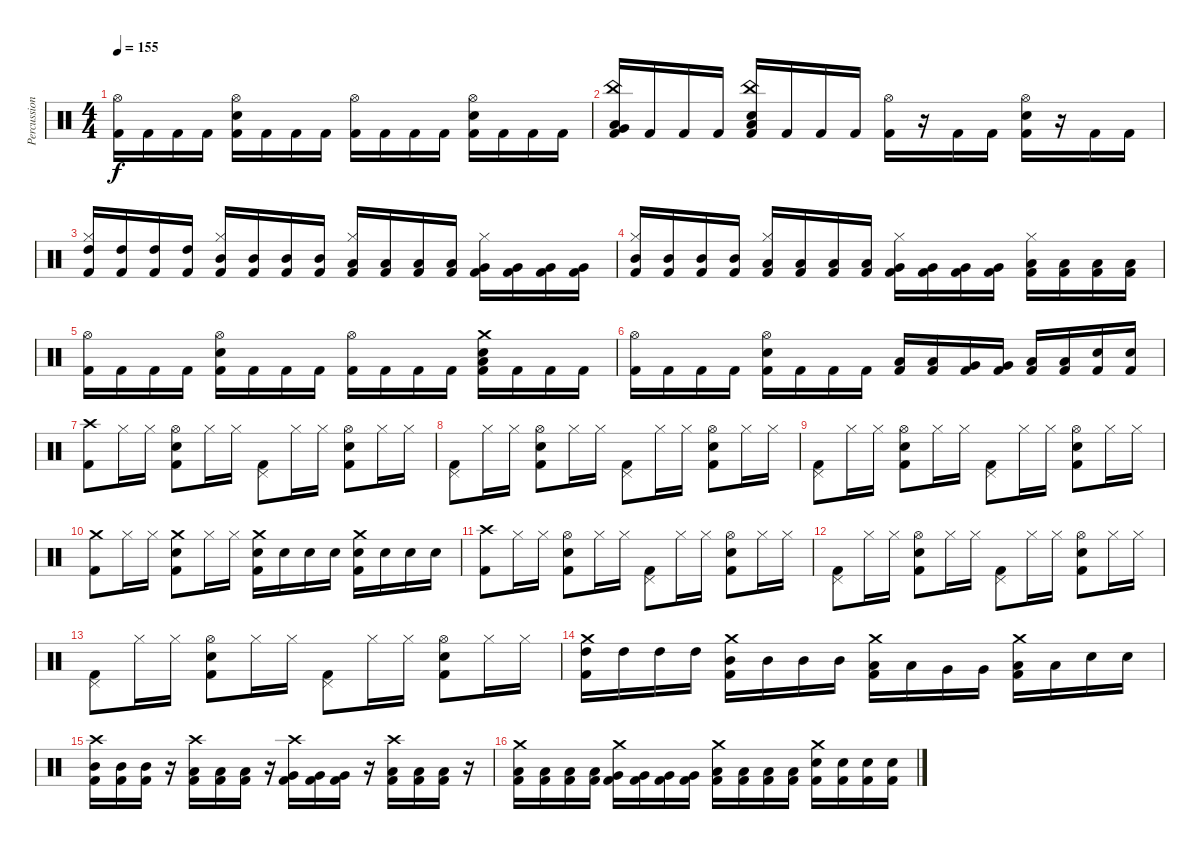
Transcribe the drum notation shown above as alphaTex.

\track ("Percussion" "Percussion") {instrument percussion}
\staff {score}
\articulation defaults
\ts (4 4)
\tempo 155
\clef neutral
\ks c
("Hi-Hat (open)" "Kick (hit) 2").16{dy f} "Kick (hit) 2".16 "Kick (hit) 2".16 "Kick (hit) 2".16 ("Hi-Hat (open)" "Electric Snare (hit)" "Kick (hit) 2").16 "Kick (hit) 2".16 "Kick (hit) 2".16 "Kick (hit) 2".16 ("Hi-Hat (open)" "Kick (hit) 2").16 "Kick (hit) 2".16 "Kick (hit) 2".16 "Kick (hit) 2".16 ("Hi-Hat (open)" "Electric Snare (hit)" "Kick (hit) 2").16 "Kick (hit) 2".16 "Kick (hit) 2".16 "Kick (hit) 2".16 |
("China (hit)" "Very Low Tom (hit)" "Low Floor Tom (hit)" "Kick (hit) 2").16 "Kick (hit) 2".16 "Kick (hit) 2".16 "Kick (hit) 2".16 ("China (hit)" "Electric Snare (hit)" "Low Floor Tom (hit)" "Kick (hit) 2").16 "Kick (hit) 2".16 "Kick (hit) 2".16 "Kick (hit) 2".16 ("Hi-Hat (open)" "Kick (hit) 2").16 r.16 "Kick (hit) 2".16 "Kick (hit) 2".16 ("Hi-Hat (open)" "Electric Snare (hit)" "Kick (hit) 2").16 r.16 "Kick (hit) 2".16 "Kick (hit) 2".16 |
("Hi-Hat (closed)" "High Tom (hit)" "Kick (hit) 2").16 ("High Tom (hit)" "Kick (hit) 2").16 ("High Tom (hit)" "Kick (hit) 2").16 ("High Tom (hit)" "Kick (hit) 2").16 ("Hi-Hat (closed)" "Mid Tom (hit)" "Kick (hit) 2").16 ("Mid Tom (hit)" "Kick (hit) 2").16 ("Mid Tom (hit)" "Kick (hit) 2").16 ("Mid Tom (hit)" "Kick (hit) 2").16 ("Hi-Hat (closed)" "Low Tom (hit)" "Kick (hit) 2").16 ("Low Tom (hit)" "Kick (hit) 2").16 ("Low Tom (hit)" "Kick (hit) 2").16 ("Low Tom (hit)" "Kick (hit) 2").16 ("Hi-Hat (closed)" "Very Low Tom (hit)" "Kick (hit) 2").16 ("Very Low Tom (hit)" "Kick (hit) 2").16 ("Very Low Tom (hit)" "Kick (hit) 2").16 ("Very Low Tom (hit)" "Kick (hit) 2").16 |
("Hi-Hat (closed)" "Mid Tom (hit)" "Kick (hit) 2").16 ("Mid Tom (hit)" "Kick (hit) 2").16 ("Mid Tom (hit)" "Kick (hit) 2").16 ("Mid Tom (hit)" "Kick (hit) 2").16 ("Hi-Hat (closed)" "Low Tom (hit)" "Kick (hit) 2").16 ("Low Tom (hit)" "Kick (hit) 2").16 ("Low Tom (hit)" "Kick (hit) 2").16 ("Low Tom (hit)" "Kick (hit) 2").16 ("Hi-Hat (closed)" "Very Low Tom (hit)" "Kick (hit) 2").16 ("Very Low Tom (hit)" "Kick (hit) 2").16 ("Very Low Tom (hit)" "Kick (hit) 2").16 ("Very Low Tom (hit)" "Kick (hit) 2").16 ("Hi-Hat (closed)" "Low Floor Tom (hit)" "Kick (hit) 2").16 ("Low Floor Tom (hit)" "Kick (hit) 2").16 ("Low Floor Tom (hit)" "Kick (hit) 2").16 ("Low Floor Tom (hit)" "Kick (hit) 2").16 |
("Hi-Hat (open)" "Kick (hit) 2").16 "Kick (hit) 2".16 "Kick (hit) 2".16 "Kick (hit) 2".16 ("Hi-Hat (open)" "Electric Snare (hit)" "Kick (hit) 2").16 "Kick (hit) 2".16 "Kick (hit) 2".16 "Kick (hit) 2".16 ("Hi-Hat (open)" "Kick (hit) 2").16 "Kick (hit) 2".16 "Kick (hit) 2".16 "Kick (hit) 2".16 ("Crash medium (hit)" "Electric Snare (hit)" "Low Floor Tom (hit)" "Kick (hit) 2").16 "Kick (hit) 2".16 "Kick (hit) 2".16 "Kick (hit) 2".16 |
("Hi-Hat (open)" "Kick (hit) 2").16 "Kick (hit) 2".16 "Kick (hit) 2".16 "Kick (hit) 2".16 ("Hi-Hat (open)" "Electric Snare (hit)" "Kick (hit) 2").16 "Kick (hit) 2".16 "Kick (hit) 2".16 "Kick (hit) 2".16 ("Low Tom (hit)" "Kick (hit) 2").16 ("Low Tom (hit)" "Kick (hit) 2").16 ("Very Low Tom (hit)" "Kick (hit) 2").16 ("Very Low Tom (hit)" "Kick (hit) 2").16 ("Low Floor Tom (hit)" "Kick (hit) 2").16 ("Low Floor Tom (hit)" "Kick (hit) 2").16 ("Electric Snare (hit)" "Kick (hit) 2").16 ("Electric Snare (hit)" "Kick (hit) 2").16 |
("Crash high (hit)" "Kick (hit) 2").8 "Hi-Hat (closed)".16 "Hi-Hat (closed)".16 ("Hi-Hat (open)" "Electric Snare (hit)" "Kick (hit) 2").8 "Hi-Hat (closed)".16 "Hi-Hat (closed)".16 ("Pedal Hi-Hat (hit)" "Kick (hit) 2").8 "Hi-Hat (closed)".16 "Hi-Hat (closed)".16 ("Hi-Hat (open)" "Electric Snare (hit)" "Kick (hit) 2").8 "Hi-Hat (closed)".16 "Hi-Hat (closed)".16 |
("Pedal Hi-Hat (hit)" "Kick (hit) 2").8 "Hi-Hat (closed)".16 "Hi-Hat (closed)".16 ("Hi-Hat (open)" "Electric Snare (hit)" "Kick (hit) 2").8 "Hi-Hat (closed)".16 "Hi-Hat (closed)".16 ("Pedal Hi-Hat (hit)" "Kick (hit) 2").8 "Hi-Hat (closed)".16 "Hi-Hat (closed)".16 ("Hi-Hat (open)" "Electric Snare (hit)" "Kick (hit) 2").8 "Hi-Hat (closed)".16 "Hi-Hat (closed)".16 |
("Pedal Hi-Hat (hit)" "Kick (hit) 2").8 "Hi-Hat (closed)".16 "Hi-Hat (closed)".16 ("Hi-Hat (open)" "Electric Snare (hit)" "Kick (hit) 2").8 "Hi-Hat (closed)".16 "Hi-Hat (closed)".16 ("Pedal Hi-Hat (hit)" "Kick (hit) 2").8 "Hi-Hat (closed)".16 "Hi-Hat (closed)".16 ("Hi-Hat (open)" "Electric Snare (hit)" "Kick (hit) 2").8 "Hi-Hat (closed)".16 "Hi-Hat (closed)".16 |
("Crash medium (hit)" "Kick (hit) 2").8 "Hi-Hat (closed)".16 "Hi-Hat (closed)".16 ("Crash medium (hit)" "Electric Snare (hit)" "Kick (hit) 2").8 "Hi-Hat (closed)".16 "Hi-Hat (closed)".16 ("Crash medium (hit)" "Electric Snare (hit)" "Kick (hit) 2").16 "Electric Snare (hit)".16 "Electric Snare (hit)".16 "Electric Snare (hit)".16 ("Crash medium (hit)" "Electric Snare (hit)" "Kick (hit) 2").16 "Electric Snare (hit)".16 "Electric Snare (hit)".16 "Electric Snare (hit)".16 |
("Crash high (hit)" "Kick (hit) 2").8 "Hi-Hat (closed)".16 "Hi-Hat (closed)".16 ("Hi-Hat (open)" "Electric Snare (hit)" "Kick (hit) 2").8 "Hi-Hat (closed)".16 "Hi-Hat (closed)".16 ("Pedal Hi-Hat (hit)" "Kick (hit) 2").8 "Hi-Hat (closed)".16 "Hi-Hat (closed)".16 ("Hi-Hat (open)" "Electric Snare (hit)" "Kick (hit) 2").8 "Hi-Hat (closed)".16 "Hi-Hat (closed)".16 |
("Pedal Hi-Hat (hit)" "Kick (hit) 2").8 "Hi-Hat (closed)".16 "Hi-Hat (closed)".16 ("Hi-Hat (open)" "Electric Snare (hit)" "Kick (hit) 2").8 "Hi-Hat (closed)".16 "Hi-Hat (closed)".16 ("Pedal Hi-Hat (hit)" "Kick (hit) 2").8 "Hi-Hat (closed)".16 "Hi-Hat (closed)".16 ("Hi-Hat (open)" "Electric Snare (hit)" "Kick (hit) 2").8 "Hi-Hat (closed)".16 "Hi-Hat (closed)".16 |
("Pedal Hi-Hat (hit)" "Kick (hit) 2").8 "Hi-Hat (closed)".16 "Hi-Hat (closed)".16 ("Hi-Hat (open)" "Electric Snare (hit)" "Kick (hit) 2").8 "Hi-Hat (closed)".16 "Hi-Hat (closed)".16 ("Pedal Hi-Hat (hit)" "Kick (hit) 2").8 "Hi-Hat (closed)".16 "Hi-Hat (closed)".16 ("Hi-Hat (open)" "Electric Snare (hit)" "Kick (hit) 2").8 "Hi-Hat (closed)".16 "Hi-Hat (closed)".16 |
("Crash medium (hit)" "High Tom (hit)" "Kick (hit) 2").16 "High Tom (hit)".16 "High Tom (hit)".16 "High Tom (hit)".16 ("Crash medium (hit)" "Mid Tom (hit)" "Kick (hit) 2").16 "Mid Tom (hit)".16 "Mid Tom (hit)".16 "Mid Tom (hit)".16 ("Crash medium (hit)" "Low Tom (hit)" "Kick (hit) 2").16 "Low Tom (hit)".16 "Very Low Tom (hit)".16 "Very Low Tom (hit)".16 ("Crash medium (hit)" "Low Floor Tom (hit)" "Kick (hit) 2").16 "Low Floor Tom (hit)".16 "Electric Snare (hit)".16 "Electric Snare (hit)".16 |
("Crash high (hit)" "Mid Tom (hit)" "Kick (hit) 2").16 ("Mid Tom (hit)" "Kick (hit) 2").16 ("Mid Tom (hit)" "Kick (hit) 2").16 r.16 ("Crash high (hit)" "Low Tom (hit)" "Kick (hit) 2").16 ("Low Tom (hit)" "Kick (hit) 2").16 ("Low Tom (hit)" "Kick (hit) 2").16 r.16 ("Crash high (hit)" "Very Low Tom (hit)" "Kick (hit) 2").16 ("Very Low Tom (hit)" "Kick (hit) 2").16 ("Very Low Tom (hit)" "Kick (hit) 2").16 r.16 ("Crash high (hit)" "Low Floor Tom (hit)" "Kick (hit) 2").16 ("Low Floor Tom (hit)" "Kick (hit) 2").16 ("Low Floor Tom (hit)" "Kick (hit) 2").16 r.16 |
("Crash medium (hit)" "Low Tom (hit)" "Kick (hit) 2").16 ("Low Tom (hit)" "Kick (hit) 2").16 ("Low Tom (hit)" "Kick (hit) 2").16 ("Low Tom (hit)" "Kick (hit) 2").16 ("Crash medium (hit)" "Very Low Tom (hit)" "Kick (hit) 2").16 ("Very Low Tom (hit)" "Kick (hit) 2").16 ("Very Low Tom (hit)" "Kick (hit) 2").16 ("Very Low Tom (hit)" "Kick (hit) 2").16 ("Crash medium (hit)" "Low Floor Tom (hit)" "Kick (hit) 2").16 ("Low Floor Tom (hit)" "Kick (hit) 2").16 ("Low Floor Tom (hit)" "Kick (hit) 2").16 ("Low Floor Tom (hit)" "Kick (hit) 2").16 ("Crash medium (hit)" "Electric Snare (hit)" "Kick (hit) 2").16 ("Electric Snare (hit)" "Kick (hit) 2").16 ("Electric Snare (hit)" "Kick (hit) 2").16 ("Electric Snare (hit)" "Kick (hit) 2").16
